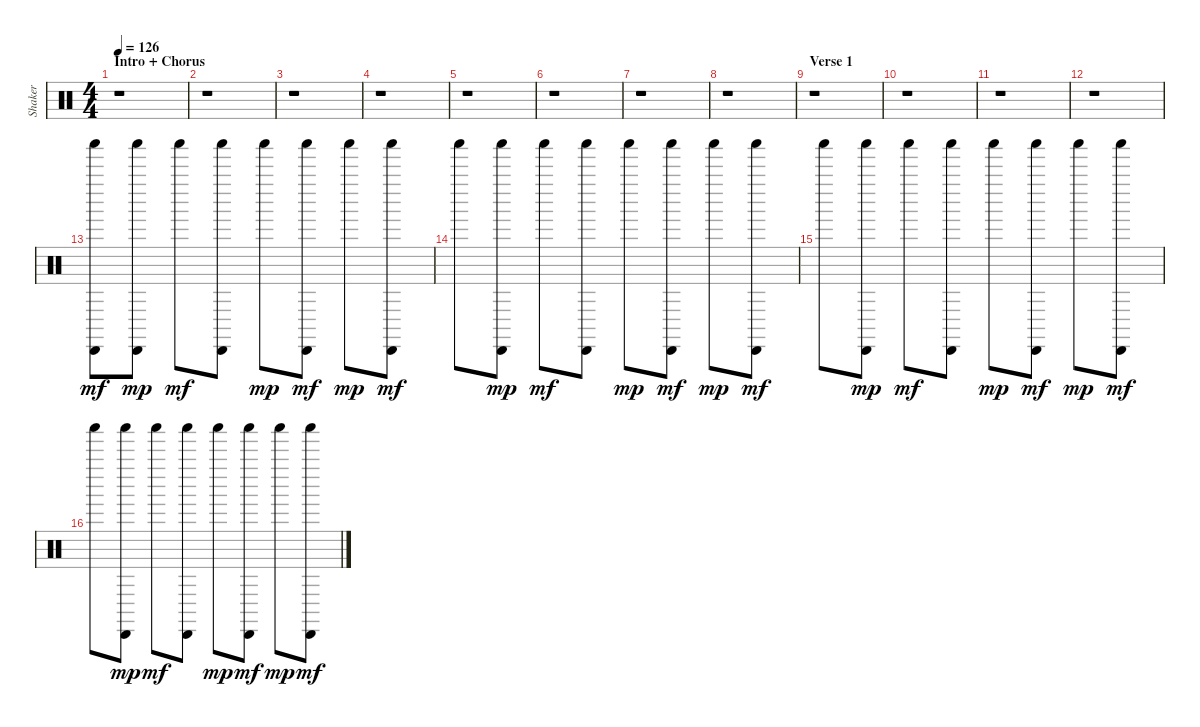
\track ("Shaker" "Shaker") {instrument percussion}
\staff {score}
\articulation defaults
\ts (4 4)
\section ("" "Intro + Chorus")
\tempo 126
\clef neutral
\ks c
r.1{dy mf} |
r.1 |
r.1 |
r.1 |
r.1 |
r.1 |
r.1 |
r.1 |
\section ("" "Verse 1")
r.1 |
r.1 |
r.1 |
r.1 |
("Cabasa (hit)" "Shaker (hit)").8 ("Cabasa (hit)" "Shaker (hit)").8{dy mp} "Shaker (hit)".8{dy mf} ("Cabasa (hit)" "Shaker (hit)").8 "Shaker (hit)".8{dy mp} ("Cabasa (hit)" "Shaker (hit)").8{dy mf} "Shaker (hit)".8{dy mp} ("Cabasa (hit)" "Shaker (hit)").8{dy mf} |
"Shaker (hit)".8 ("Cabasa (hit)" "Shaker (hit)").8{dy mp} "Shaker (hit)".8{dy mf} ("Cabasa (hit)" "Shaker (hit)").8 "Shaker (hit)".8{dy mp} ("Cabasa (hit)" "Shaker (hit)").8{dy mf} "Shaker (hit)".8{dy mp} ("Cabasa (hit)" "Shaker (hit)").8{dy mf} |
"Shaker (hit)".8 ("Cabasa (hit)" "Shaker (hit)").8{dy mp} "Shaker (hit)".8{dy mf} ("Cabasa (hit)" "Shaker (hit)").8 "Shaker (hit)".8{dy mp} ("Cabasa (hit)" "Shaker (hit)").8{dy mf} "Shaker (hit)".8{dy mp} ("Cabasa (hit)" "Shaker (hit)").8{dy mf} |
"Shaker (hit)".8 ("Cabasa (hit)" "Shaker (hit)").8{dy mp} "Shaker (hit)".8{dy mf} ("Cabasa (hit)" "Shaker (hit)").8 "Shaker (hit)".8{dy mp} ("Cabasa (hit)" "Shaker (hit)").8{dy mf} "Shaker (hit)".8{dy mp} ("Cabasa (hit)" "Shaker (hit)").8{dy mf}
